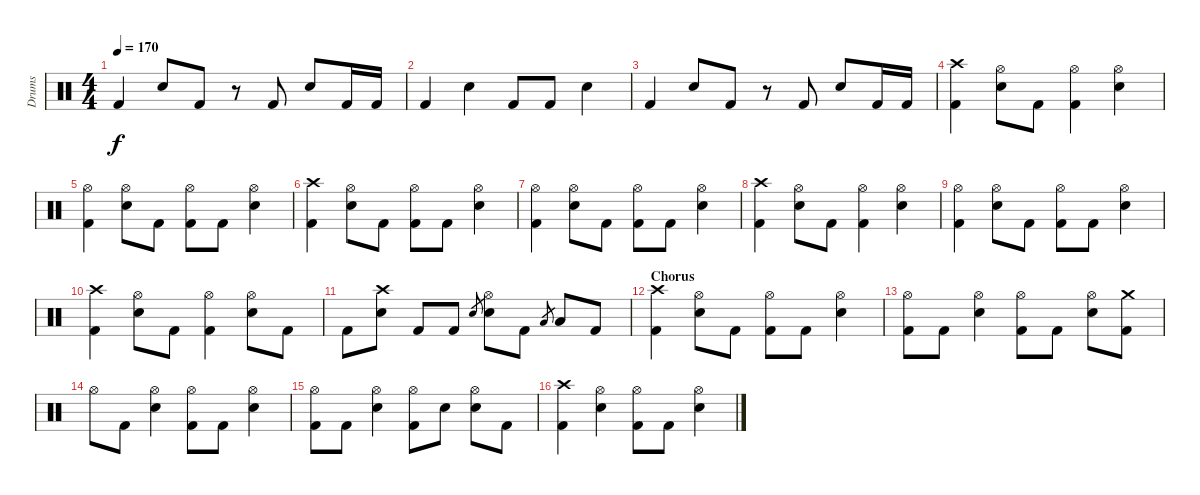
\track ("Drums" "Drums") {instrument percussion}
\staff {score}
\articulation defaults
\ts (4 4)
\tempo 170
\clef neutral
\ks c "Kick (hit) 2".4{dy f} "Electric Snare (hit)".8 "Kick (hit) 2".8
r.8 "Kick (hit) 2".8 "Electric Snare (hit)".8 "Kick (hit) 2".16 "Kick (hit) 2".16 |
"Kick (hit) 2".4 "Electric Snare (hit)".4 "Kick (hit) 2".8 "Kick (hit) 2".8 "Electric Snare (hit)".4 |
"Kick (hit) 2".4 "Electric Snare (hit)".8 "Kick (hit) 2".8 r.8 "Kick (hit) 2".8 "Electric Snare (hit)".8 "Kick (hit) 2".16 "Kick (hit) 2".16 |
("Crash high (hit)" "Kick (hit) 2").4 ("Hi-Hat (open)" "Electric Snare (hit)").8 "Kick (hit) 2".8 ("Hi-Hat (open)" "Kick (hit) 2").4 ("Hi-Hat (open)" "Electric Snare (hit)").4 |
("Hi-Hat (open)" "Kick (hit) 2").4 ("Hi-Hat (open)" "Electric Snare (hit)").8 "Kick (hit) 2".8 ("Hi-Hat (open)" "Kick (hit) 2").8 "Kick (hit) 2".8 ("Hi-Hat (open)" "Electric Snare (hit)").4 |
("Crash high (hit)" "Kick (hit) 2").4 ("Hi-Hat (open)" "Electric Snare (hit)").8 "Kick (hit) 2".8 ("Hi-Hat (open)" "Kick (hit) 2").8 "Kick (hit) 2".8 ("Hi-Hat (open)" "Electric Snare (hit)").4 |
("Hi-Hat (open)" "Kick (hit) 2").4 ("Hi-Hat (open)" "Electric Snare (hit)").8 "Kick (hit) 2".8 ("Hi-Hat (open)" "Kick (hit) 2").8 "Kick (hit) 2".8 ("Hi-Hat (open)" "Electric Snare (hit)").4 |
("Crash high (hit)" "Kick (hit) 2").4 ("Hi-Hat (open)" "Electric Snare (hit)").8 "Kick (hit) 2".8 ("Hi-Hat (open)" "Kick (hit) 2").4 ("Hi-Hat (open)" "Electric Snare (hit)").4 |
("Hi-Hat (open)" "Kick (hit) 2").4 ("Hi-Hat (open)" "Electric Snare (hit)").8 "Kick (hit) 2".8 ("Hi-Hat (open)" "Kick (hit) 2").8 "Kick (hit) 2".8 ("Hi-Hat (open)" "Electric Snare (hit)").4 |
("Crash high (hit)" "Kick (hit) 2").4 ("Hi-Hat (open)" "Electric Snare (hit)").8 "Kick (hit) 2".8 ("Hi-Hat (open)" "Kick (hit) 2").4 ("Hi-Hat (open)" "Electric Snare (hit)").8 "Kick (hit) 2".8 |
"Kick (hit) 2".8 ("Crash high (hit)" "Electric Snare (hit)").8 "Kick (hit) 2".8 "Kick (hit) 2".8 "Electric Snare (hit)".8{gr} ("Hi-Hat (open)" "Electric Snare (hit)").8 "Kick (hit) 2".8 "Low Tom (hit)".8{gr} "Low Tom (hit)".8 "Kick (hit) 2".8 |
\section ("" "Chorus")
("Crash high (hit)" "Kick (hit) 2").4 ("Hi-Hat (open)" "Electric Snare (hit)").8 "Kick (hit) 2".8 ("Hi-Hat (open)" "Kick (hit) 2").8 "Kick (hit) 2".8 ("Hi-Hat (open)" "Electric Snare (hit)").4 |
("Hi-Hat (open)" "Kick (hit) 2").8 "Kick (hit) 2".8 ("Hi-Hat (open)" "Electric Snare (hit)").4 ("Hi-Hat (open)" "Kick (hit) 2").8 "Kick (hit) 2".8 ("Hi-Hat (open)" "Electric Snare (hit)").8 ("Crash medium (hit)" "Kick (hit) 2").8 |
"Hi-Hat (open)".8 "Kick (hit) 2".8 ("Hi-Hat (open)" "Electric Snare (hit)").4 ("Hi-Hat (open)" "Kick (hit) 2").8 "Kick (hit) 2".8 ("Hi-Hat (open)" "Electric Snare (hit)").4 |
("Hi-Hat (open)" "Kick (hit) 2").8 "Kick (hit) 2".8 ("Hi-Hat (open)" "Electric Snare (hit)").4 ("Hi-Hat (open)" "Kick (hit) 2").8 "Electric Snare (hit)".8 ("Hi-Hat (open)" "Electric Snare (hit)").8 "Kick (hit) 2".8 |
("Crash high (hit)" "Kick (hit) 2").4 ("Hi-Hat (open)" "Electric Snare (hit)").4 ("Hi-Hat (open)" "Kick (hit) 2").8 "Kick (hit) 2".8 ("Hi-Hat (open)" "Electric Snare (hit)").4
